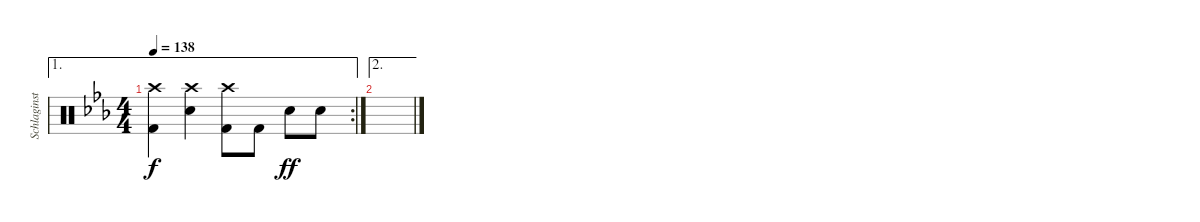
\track ("Schlaginstrumente - Auswahl" "Schlaginst") {instrument percussion}
\staff {score}
\articulation defaults
\ae 1
\rc 2
\ts (4 4)
\tempo 138
\clef neutral
\ks eb
("Crash high (hit)" "Kick (hit) 2").4{dy f} ("Crash high (hit)" "Electric Snare (hit)").4 ("Crash high (hit)" "Kick (hit) 2").8 "Kick (hit) 2".8 "Electric Snare (hit)".8{dy ff} "Electric Snare (hit)".8 |
\ae 2
